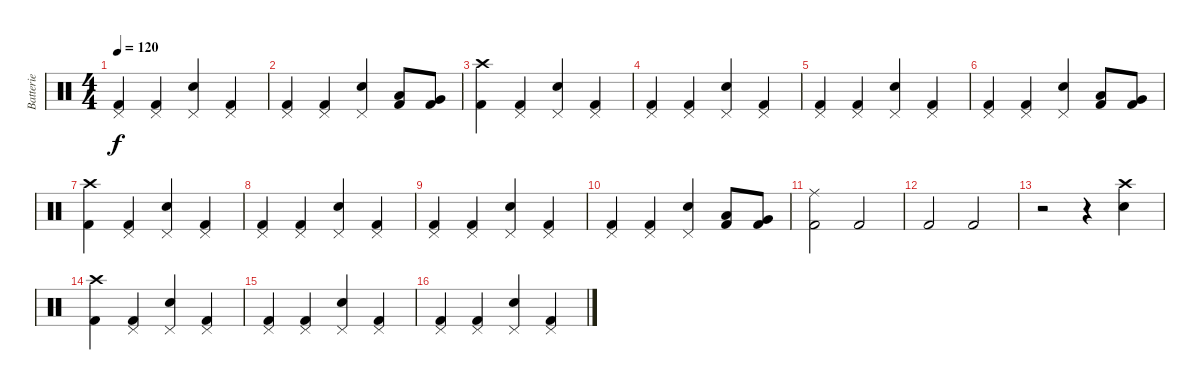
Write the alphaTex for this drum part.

\track ("Batterie" "Batterie") {instrument percussion}
\staff {score}
\articulation defaults
\ts (4 4)
\tempo 120
\clef neutral
\ks c
("Pedal Hi-Hat (hit)" "Kick (hit) 2").4{dy f} ("Pedal Hi-Hat (hit)" "Kick (hit) 2").4 ("Pedal Hi-Hat (hit)" "Electric Snare (hit)").4 ("Pedal Hi-Hat (hit)" "Kick (hit) 2").4 |
("Pedal Hi-Hat (hit)" "Kick (hit) 2").4 ("Pedal Hi-Hat (hit)" "Kick (hit) 2").4 ("Pedal Hi-Hat (hit)" "Electric Snare (hit)").4 ("Low Tom (hit)" "Kick (hit) 2").8 ("Very Low Tom (hit)" "Kick (hit) 2").8 |
("Crash high (hit)" "Kick (hit) 2").4 ("Pedal Hi-Hat (hit)" "Kick (hit) 2").4 ("Pedal Hi-Hat (hit)" "Electric Snare (hit)").4 ("Pedal Hi-Hat (hit)" "Kick (hit) 2").4 |
("Pedal Hi-Hat (hit)" "Kick (hit) 2").4 ("Pedal Hi-Hat (hit)" "Kick (hit) 2").4 ("Pedal Hi-Hat (hit)" "Electric Snare (hit)").4 ("Pedal Hi-Hat (hit)" "Kick (hit) 2").4 |
("Pedal Hi-Hat (hit)" "Kick (hit) 2").4 ("Pedal Hi-Hat (hit)" "Kick (hit) 2").4 ("Pedal Hi-Hat (hit)" "Electric Snare (hit)").4 ("Pedal Hi-Hat (hit)" "Kick (hit) 2").4 |
("Pedal Hi-Hat (hit)" "Kick (hit) 2").4 ("Pedal Hi-Hat (hit)" "Kick (hit) 2").4 ("Pedal Hi-Hat (hit)" "Electric Snare (hit)").4 ("Low Tom (hit)" "Kick (hit) 2").8 ("Very Low Tom (hit)" "Kick (hit) 2").8 |
("Crash high (hit)" "Kick (hit) 2").4 ("Pedal Hi-Hat (hit)" "Kick (hit) 2").4 ("Pedal Hi-Hat (hit)" "Electric Snare (hit)").4 ("Pedal Hi-Hat (hit)" "Kick (hit) 2").4 |
("Pedal Hi-Hat (hit)" "Kick (hit) 2").4 ("Pedal Hi-Hat (hit)" "Kick (hit) 2").4 ("Pedal Hi-Hat (hit)" "Electric Snare (hit)").4 ("Pedal Hi-Hat (hit)" "Kick (hit) 2").4 |
("Pedal Hi-Hat (hit)" "Kick (hit) 2").4 ("Pedal Hi-Hat (hit)" "Kick (hit) 2").4 ("Pedal Hi-Hat (hit)" "Electric Snare (hit)").4 ("Pedal Hi-Hat (hit)" "Kick (hit) 2").4 |
("Pedal Hi-Hat (hit)" "Kick (hit) 2").4 ("Pedal Hi-Hat (hit)" "Kick (hit) 2").4 ("Pedal Hi-Hat (hit)" "Electric Snare (hit)").4 ("Low Tom (hit)" "Kick (hit) 2").8 ("Very Low Tom (hit)" "Kick (hit) 2").8 |
("Ride (middle)" "Kick (hit) 2").2 "Kick (hit) 2".2 |
"Kick (hit) 2".2 "Kick (hit) 2".2 |
r.2 r.4 ("Electric Snare (hit)" "Crash high (hit)").4 |
("Crash high (hit)" "Kick (hit) 2").4 ("Pedal Hi-Hat (hit)" "Kick (hit) 2").4 ("Pedal Hi-Hat (hit)" "Electric Snare (hit)").4 ("Pedal Hi-Hat (hit)" "Kick (hit) 2").4 |
("Pedal Hi-Hat (hit)" "Kick (hit) 2").4 ("Pedal Hi-Hat (hit)" "Kick (hit) 2").4 ("Pedal Hi-Hat (hit)" "Electric Snare (hit)").4 ("Pedal Hi-Hat (hit)" "Kick (hit) 2").4 |
("Pedal Hi-Hat (hit)" "Kick (hit) 2").4 ("Pedal Hi-Hat (hit)" "Kick (hit) 2").4 ("Pedal Hi-Hat (hit)" "Electric Snare (hit)").4 ("Pedal Hi-Hat (hit)" "Kick (hit) 2").4
